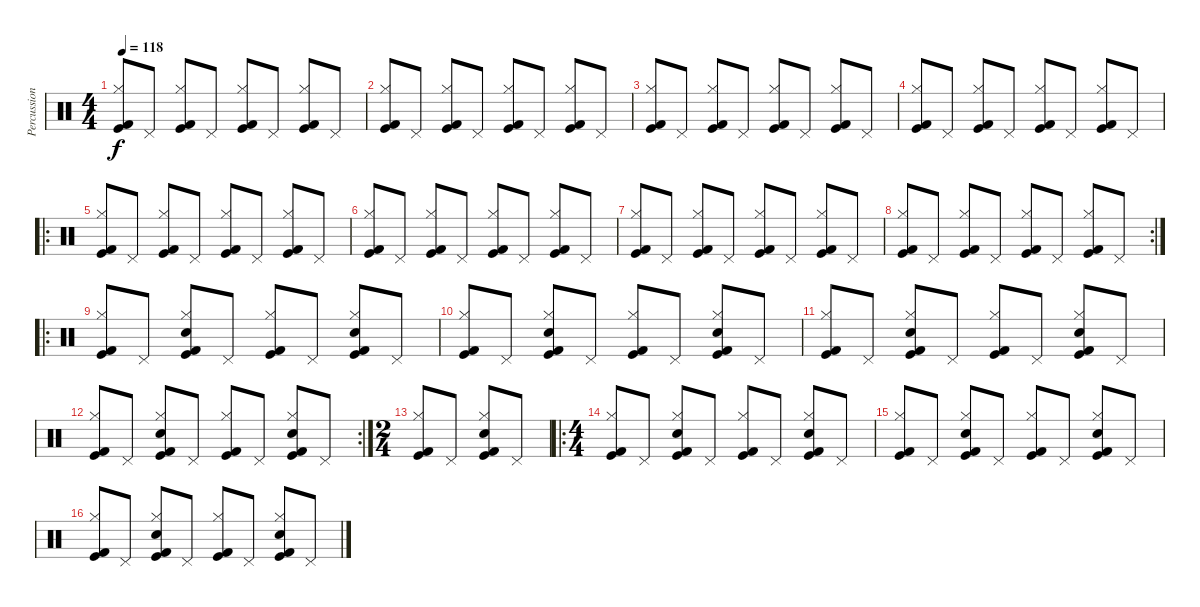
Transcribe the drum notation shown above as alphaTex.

\track ("Percussion" "Percussion") {instrument percussion}
\staff {score}
\articulation defaults
\ts (4 4)
\tempo 118
\clef neutral
\ks c
("Kick (hit)" "Hi-Hat (closed)" "Kick (hit) 2").8{dy f} "Pedal Hi-Hat (hit)".8 ("Kick (hit)" "Hi-Hat (closed)" "Kick (hit) 2").8 "Pedal Hi-Hat (hit)".8 ("Kick (hit)" "Hi-Hat (closed)" "Kick (hit) 2").8 "Pedal Hi-Hat (hit)".8 ("Kick (hit)" "Hi-Hat (closed)" "Kick (hit) 2").8 "Pedal Hi-Hat (hit)".8 |
("Kick (hit)" "Hi-Hat (closed)" "Kick (hit) 2").8 "Pedal Hi-Hat (hit)".8 ("Kick (hit)" "Hi-Hat (closed)" "Kick (hit) 2").8 "Pedal Hi-Hat (hit)".8 ("Kick (hit)" "Hi-Hat (closed)" "Kick (hit) 2").8 "Pedal Hi-Hat (hit)".8 ("Kick (hit)" "Hi-Hat (closed)" "Kick (hit) 2").8 "Pedal Hi-Hat (hit)".8 |
("Kick (hit)" "Hi-Hat (closed)" "Kick (hit) 2").8 "Pedal Hi-Hat (hit)".8 ("Kick (hit)" "Hi-Hat (closed)" "Kick (hit) 2").8 "Pedal Hi-Hat (hit)".8 ("Kick (hit)" "Hi-Hat (closed)" "Kick (hit) 2").8 "Pedal Hi-Hat (hit)".8 ("Kick (hit)" "Hi-Hat (closed)" "Kick (hit) 2").8 "Pedal Hi-Hat (hit)".8 |
("Kick (hit)" "Hi-Hat (closed)" "Kick (hit) 2").8 "Pedal Hi-Hat (hit)".8 ("Kick (hit)" "Hi-Hat (closed)" "Kick (hit) 2").8 "Pedal Hi-Hat (hit)".8 ("Kick (hit)" "Hi-Hat (closed)" "Kick (hit) 2").8 "Pedal Hi-Hat (hit)".8 ("Kick (hit)" "Hi-Hat (closed)" "Kick (hit) 2").8 "Pedal Hi-Hat (hit)".8 |
\ro
("Kick (hit)" "Hi-Hat (closed)" "Kick (hit) 2").8 "Pedal Hi-Hat (hit)".8 ("Kick (hit)" "Hi-Hat (closed)" "Kick (hit) 2").8 "Pedal Hi-Hat (hit)".8 ("Kick (hit)" "Hi-Hat (closed)" "Kick (hit) 2").8 "Pedal Hi-Hat (hit)".8 ("Kick (hit)" "Hi-Hat (closed)" "Kick (hit) 2").8 "Pedal Hi-Hat (hit)".8 |
("Kick (hit)" "Hi-Hat (closed)" "Kick (hit) 2").8 "Pedal Hi-Hat (hit)".8 ("Kick (hit)" "Hi-Hat (closed)" "Kick (hit) 2").8 "Pedal Hi-Hat (hit)".8 ("Kick (hit)" "Hi-Hat (closed)" "Kick (hit) 2").8 "Pedal Hi-Hat (hit)".8 ("Kick (hit)" "Hi-Hat (closed)" "Kick (hit) 2").8 "Pedal Hi-Hat (hit)".8 |
("Kick (hit)" "Hi-Hat (closed)" "Kick (hit) 2").8 "Pedal Hi-Hat (hit)".8 ("Kick (hit)" "Hi-Hat (closed)" "Kick (hit) 2").8 "Pedal Hi-Hat (hit)".8 ("Kick (hit)" "Hi-Hat (closed)" "Kick (hit) 2").8 "Pedal Hi-Hat (hit)".8 ("Kick (hit)" "Hi-Hat (closed)" "Kick (hit) 2").8 "Pedal Hi-Hat (hit)".8 |
\rc 2
("Kick (hit)" "Hi-Hat (closed)" "Kick (hit) 2").8 "Pedal Hi-Hat (hit)".8 ("Kick (hit)" "Hi-Hat (closed)" "Kick (hit) 2").8 "Pedal Hi-Hat (hit)".8 ("Kick (hit)" "Hi-Hat (closed)" "Kick (hit) 2").8 "Pedal Hi-Hat (hit)".8 ("Kick (hit)" "Hi-Hat (closed)" "Kick (hit) 2").8 "Pedal Hi-Hat (hit)".8 |
\ro
("Kick (hit)" "Hi-Hat (closed)" "Kick (hit) 2").8 "Pedal Hi-Hat (hit)".8 ("Snare (hit) 2" "Kick (hit)" "Hi-Hat (closed)" "Kick (hit) 2").8 "Pedal Hi-Hat (hit)".8 ("Kick (hit)" "Hi-Hat (closed)" "Kick (hit) 2").8 "Pedal Hi-Hat (hit)".8 ("Snare (hit) 2" "Kick (hit)" "Hi-Hat (closed)" "Kick (hit) 2").8 "Pedal Hi-Hat (hit)".8 |
("Kick (hit)" "Hi-Hat (closed)" "Kick (hit) 2").8 "Pedal Hi-Hat (hit)".8 ("Snare (hit) 2" "Kick (hit)" "Hi-Hat (closed)" "Kick (hit) 2").8 "Pedal Hi-Hat (hit)".8 ("Kick (hit)" "Hi-Hat (closed)" "Kick (hit) 2").8 "Pedal Hi-Hat (hit)".8 ("Snare (hit) 2" "Kick (hit)" "Hi-Hat (closed)" "Kick (hit) 2").8 "Pedal Hi-Hat (hit)".8 |
("Kick (hit)" "Hi-Hat (closed)" "Kick (hit) 2").8 "Pedal Hi-Hat (hit)".8 ("Snare (hit) 2" "Kick (hit)" "Hi-Hat (closed)" "Kick (hit) 2").8 "Pedal Hi-Hat (hit)".8 ("Kick (hit)" "Hi-Hat (closed)" "Kick (hit) 2").8 "Pedal Hi-Hat (hit)".8 ("Snare (hit) 2" "Kick (hit)" "Hi-Hat (closed)" "Kick (hit) 2").8 "Pedal Hi-Hat (hit)".8 |
\rc 2
("Kick (hit)" "Hi-Hat (closed)" "Kick (hit) 2").8 "Pedal Hi-Hat (hit)".8 ("Snare (hit) 2" "Kick (hit)" "Hi-Hat (closed)" "Kick (hit) 2").8 "Pedal Hi-Hat (hit)".8 ("Kick (hit)" "Hi-Hat (closed)" "Kick (hit) 2").8 "Pedal Hi-Hat (hit)".8 ("Snare (hit) 2" "Kick (hit)" "Hi-Hat (closed)" "Kick (hit) 2").8 "Pedal Hi-Hat (hit)".8 |
\ts (2 4)
("Kick (hit)" "Hi-Hat (closed)" "Kick (hit) 2").8 "Pedal Hi-Hat (hit)".8 ("Snare (hit) 2" "Kick (hit)" "Hi-Hat (closed)" "Kick (hit) 2").8 "Pedal Hi-Hat (hit)".8 |
\ro
\ts (4 4)
("Kick (hit)" "Hi-Hat (closed)" "Kick (hit) 2").8 "Pedal Hi-Hat (hit)".8 ("Snare (hit) 2" "Kick (hit)" "Hi-Hat (closed)" "Kick (hit) 2").8 "Pedal Hi-Hat (hit)".8 ("Kick (hit)" "Hi-Hat (closed)" "Kick (hit) 2").8 "Pedal Hi-Hat (hit)".8 ("Snare (hit) 2" "Kick (hit)" "Hi-Hat (closed)" "Kick (hit) 2").8 "Pedal Hi-Hat (hit)".8 |
("Kick (hit)" "Hi-Hat (closed)" "Kick (hit) 2").8 "Pedal Hi-Hat (hit)".8 ("Snare (hit) 2" "Kick (hit)" "Hi-Hat (closed)" "Kick (hit) 2").8 "Pedal Hi-Hat (hit)".8 ("Kick (hit)" "Hi-Hat (closed)" "Kick (hit) 2").8 "Pedal Hi-Hat (hit)".8 ("Snare (hit) 2" "Kick (hit)" "Hi-Hat (closed)" "Kick (hit) 2").8 "Pedal Hi-Hat (hit)".8 |
("Kick (hit)" "Hi-Hat (closed)" "Kick (hit) 2").8 "Pedal Hi-Hat (hit)".8 ("Snare (hit) 2" "Kick (hit)" "Hi-Hat (closed)" "Kick (hit) 2").8 "Pedal Hi-Hat (hit)".8 ("Kick (hit)" "Hi-Hat (closed)" "Kick (hit) 2").8 "Pedal Hi-Hat (hit)".8 ("Snare (hit) 2" "Kick (hit)" "Hi-Hat (closed)" "Kick (hit) 2").8 "Pedal Hi-Hat (hit)".8
